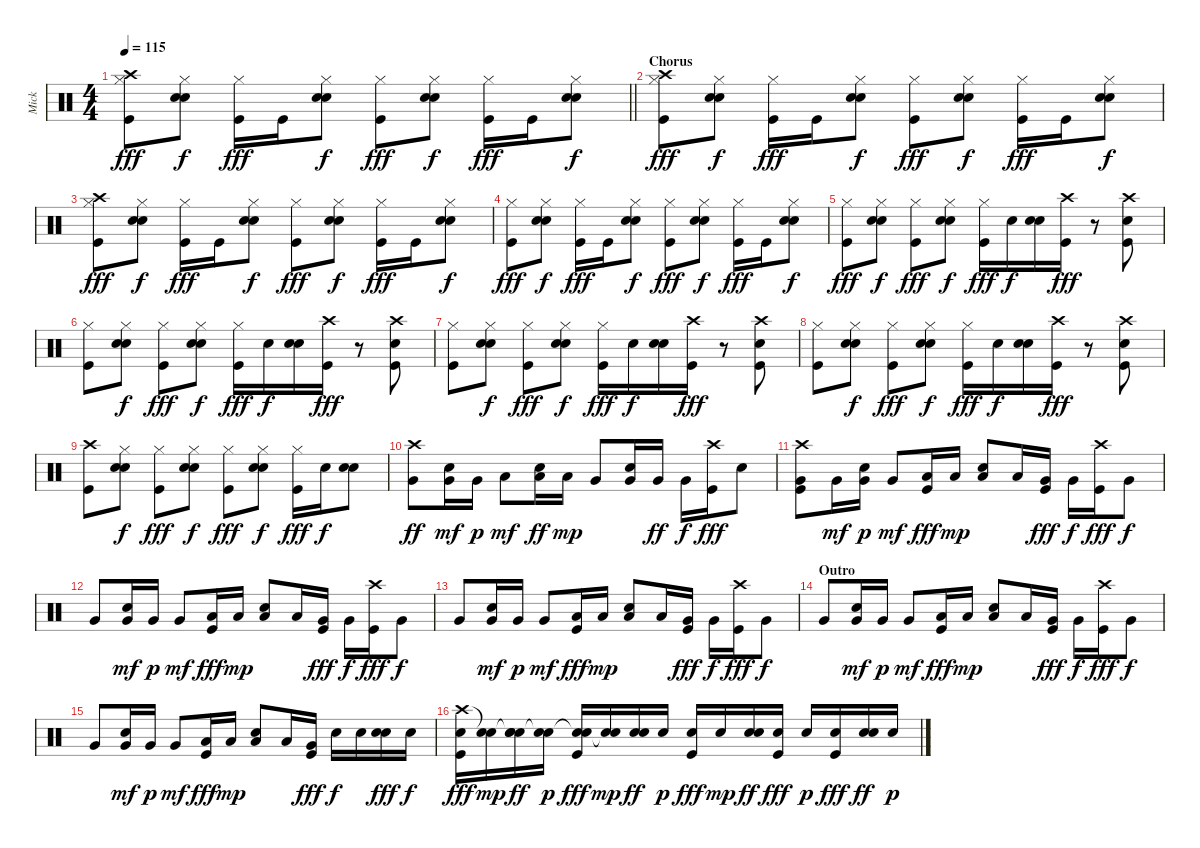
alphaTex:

\track ("Mick" "Mick") {instrument percussion}
\staff {score}
\articulation defaults
\ts (4 4)
\tempo 115
\clef neutral
\barLineRight lightlight
\ks c
("Crash high (hit)" "Hi-Hat (closed)" "Kick (hit)").8{dy fff} ("Hand Clap (hit)" "Hi-Hat (closed)" "Electric Snare (hit)").8{dy f} ("Hi-Hat (closed)" "Kick (hit)").16{dy fff} "Kick (hit)".16 ("Hand Clap (hit)" "Hi-Hat (closed)" "Electric Snare (hit)").8{dy f} ("Hi-Hat (closed)" "Kick (hit)").8{dy fff} ("Hand Clap (hit)" "Hi-Hat (closed)" "Electric Snare (hit)").8{dy f} ("Hi-Hat (closed)" "Kick (hit)").16{dy fff} "Kick (hit)".16 ("Hand Clap (hit)" "Hi-Hat (closed)" "Electric Snare (hit)").8{dy f} |
\section ("" "Chorus")
("Crash high (hit)" "Hi-Hat (closed)" "Kick (hit)").8{dy fff} ("Hand Clap (hit)" "Hi-Hat (closed)" "Electric Snare (hit)").8{dy f} ("Hi-Hat (closed)" "Kick (hit)").16{dy fff} "Kick (hit)".16 ("Hand Clap (hit)" "Hi-Hat (closed)" "Electric Snare (hit)").8{dy f} ("Hi-Hat (closed)" "Kick (hit)").8{dy fff} ("Hand Clap (hit)" "Hi-Hat (closed)" "Electric Snare (hit)").8{dy f} ("Hi-Hat (closed)" "Kick (hit)").16{dy fff} "Kick (hit)".16 ("Hand Clap (hit)" "Hi-Hat (closed)" "Electric Snare (hit)").8{dy f} |
("Crash high (hit)" "Hi-Hat (closed)" "Kick (hit)").8{dy fff} ("Hand Clap (hit)" "Hi-Hat (closed)" "Electric Snare (hit)").8{dy f} ("Hi-Hat (closed)" "Kick (hit)").16{dy fff} "Kick (hit)".16 ("Hand Clap (hit)" "Hi-Hat (closed)" "Electric Snare (hit)").8{dy f} ("Hi-Hat (closed)" "Kick (hit)").8{dy fff} ("Hand Clap (hit)" "Hi-Hat (closed)" "Electric Snare (hit)").8{dy f} ("Hi-Hat (closed)" "Kick (hit)").16{dy fff} "Kick (hit)".16 ("Hand Clap (hit)" "Hi-Hat (closed)" "Electric Snare (hit)").8{dy f} |
("Hi-Hat (closed)" "Kick (hit)").8{dy fff} ("Hand Clap (hit)" "Hi-Hat (closed)" "Electric Snare (hit)").8{dy f} ("Hi-Hat (closed)" "Kick (hit)").16{dy fff} "Kick (hit)".16 ("Hand Clap (hit)" "Hi-Hat (closed)" "Electric Snare (hit)").8{dy f} ("Hi-Hat (closed)" "Kick (hit)").8{dy fff} ("Hand Clap (hit)" "Hi-Hat (closed)" "Electric Snare (hit)").8{dy f} ("Hi-Hat (closed)" "Kick (hit)").16{dy fff} "Kick (hit)".16 ("Hand Clap (hit)" "Hi-Hat (closed)" "Electric Snare (hit)").8{dy f} |
("Hi-Hat (closed)" "Kick (hit)").8{dy fff} ("Hand Clap (hit)" "Hi-Hat (closed)" "Electric Snare (hit)").8{dy f} ("Hi-Hat (closed)" "Kick (hit)").8{dy fff} ("Hand Clap (hit)" "Hi-Hat (closed)" "Electric Snare (hit)").8{dy f} ("Hi-Hat (closed)" "Kick (hit)").16{dy fff} "Electric Snare (hit)".16{dy f} ("Hand Clap (hit)" "Electric Snare (hit)").16 ("Crash high (hit)" "Kick (hit)").16{dy fff} r.8 ("Crash high (hit)" "Hand Clap (hit)" "Kick (hit)").8 |
("Hi-Hat (closed)" "Kick (hit)").8 ("Hand Clap (hit)" "Hi-Hat (closed)" "Electric Snare (hit)").8{dy f} ("Hi-Hat (closed)" "Kick (hit)").8{dy fff} ("Hand Clap (hit)" "Hi-Hat (closed)" "Electric Snare (hit)").8{dy f} ("Hi-Hat (closed)" "Kick (hit)").16{dy fff} "Electric Snare (hit)".16{dy f} ("Hand Clap (hit)" "Electric Snare (hit)").16 ("Crash high (hit)" "Kick (hit)").16{dy fff} r.8 ("Crash high (hit)" "Hand Clap (hit)" "Kick (hit)").8 |
("Hi-Hat (closed)" "Kick (hit)").8 ("Hand Clap (hit)" "Hi-Hat (closed)" "Electric Snare (hit)").8{dy f} ("Hi-Hat (closed)" "Kick (hit)").8{dy fff} ("Hand Clap (hit)" "Hi-Hat (closed)" "Electric Snare (hit)").8{dy f} ("Hi-Hat (closed)" "Kick (hit)").16{dy fff} "Electric Snare (hit)".16{dy f} ("Hand Clap (hit)" "Electric Snare (hit)").16 ("Crash high (hit)" "Kick (hit)").16{dy fff} r.8 ("Crash high (hit)" "Hand Clap (hit)" "Kick (hit)").8 |
("Hi-Hat (closed)" "Kick (hit)").8 ("Hand Clap (hit)" "Hi-Hat (closed)" "Electric Snare (hit)").8{dy f} ("Hi-Hat (closed)" "Kick (hit)").8{dy fff} ("Hand Clap (hit)" "Hi-Hat (closed)" "Electric Snare (hit)").8{dy f} ("Hi-Hat (closed)" "Kick (hit)").16{dy fff} "Electric Snare (hit)".16{dy f} ("Hand Clap (hit)" "Electric Snare (hit)").16 ("Crash high (hit)" "Kick (hit)").16{dy fff} r.8 ("Crash high (hit)" "Hand Clap (hit)" "Kick (hit)").8 |
("Crash high (hit)" "Kick (hit)").8 ("Hand Clap (hit)" "Hi-Hat (closed)" "Electric Snare (hit)").8{dy f} ("Hi-Hat (closed)" "Kick (hit)").8{dy fff} ("Hand Clap (hit)" "Hi-Hat (closed)" "Electric Snare (hit)").8{dy f} ("Hi-Hat (closed)" "Kick (hit)").8{dy fff} ("Hand Clap (hit)" "Hi-Hat (closed)" "Electric Snare (hit)").8{dy f} ("Hi-Hat (closed)" "Kick (hit)").16{dy fff} "Electric Snare (hit)".16{dy f} ("Hand Clap (hit)" "Electric Snare (hit)").8 |
("Crash high (hit)" "Very Low Tom (hit)").8{dy ff} ("Hand Clap (hit)" "Very Low Tom (hit)").16{dy mf} "Very Low Tom (hit)".16{dy p} "Low Floor Tom (hit)".8{dy mf} ("Hand Clap (hit)" "Low Floor Tom (hit)").16{dy ff} "Low Floor Tom (hit)".16{dy mp} "Very Low Tom (hit)".8 ("Hand Clap (hit)" "Very Low Tom (hit)").16 "Very Low Tom (hit)".16{dy ff} "Very Low Tom (hit)".16{dy f} ("Crash high (hit)" "Kick (hit)").16{dy fff} "Hand Clap (hit)".8 |
("Crash high (hit)" "Very Low Tom (hit)" "Kick (hit)").8 "Very Low Tom (hit)".16{dy mf} ("Hand Clap (hit)" "Very Low Tom (hit)").16{dy p} "Very Low Tom (hit)".8{dy mf} ("Low Floor Tom (hit)" "Kick (hit)").16{dy fff} "Low Floor Tom (hit)".16{dy mp} ("Hand Clap (hit)" "Low Floor Tom (hit)").8 "Low Floor Tom (hit)".16 ("Very Low Tom (hit)" "Kick (hit)").16{dy fff} "Very Low Tom (hit)".16{dy f} ("Crash high (hit)" "Kick (hit)").16{dy fff} "Very Low Tom (hit)".8{dy f} |
"Very Low Tom (hit)".8 ("Hand Clap (hit)" "Very Low Tom (hit)").16{dy mf} "Very Low Tom (hit)".16{dy p} "Very Low Tom (hit)".8{dy mf} ("Low Floor Tom (hit)" "Kick (hit)").16{dy fff} "Low Floor Tom (hit)".16{dy mp} ("Hand Clap (hit)" "Low Floor Tom (hit)").8 "Low Floor Tom (hit)".16 ("Very Low Tom (hit)" "Kick (hit)").16{dy fff} "Very Low Tom (hit)".16{dy f} ("Crash high (hit)" "Kick (hit)").16{dy fff} "Very Low Tom (hit)".8{dy f} |
"Very Low Tom (hit)".8 ("Hand Clap (hit)" "Very Low Tom (hit)").16{dy mf} "Very Low Tom (hit)".16{dy p} "Very Low Tom (hit)".8{dy mf} ("Low Floor Tom (hit)" "Kick (hit)").16{dy fff} "Low Floor Tom (hit)".16{dy mp} ("Hand Clap (hit)" "Low Floor Tom (hit)").8 "Low Floor Tom (hit)".16 ("Very Low Tom (hit)" "Kick (hit)").16{dy fff} "Very Low Tom (hit)".16{dy f} ("Crash high (hit)" "Kick (hit)").16{dy fff} "Very Low Tom (hit)".8{dy f} |
\section ("" "Outro")
"Very Low Tom (hit)".8 ("Hand Clap (hit)" "Very Low Tom (hit)").16{dy mf} "Very Low Tom (hit)".16{dy p} "Very Low Tom (hit)".8{dy mf} ("Low Floor Tom (hit)" "Kick (hit)").16{dy fff} "Low Floor Tom (hit)".16{dy mp} ("Hand Clap (hit)" "Low Floor Tom (hit)").8 "Low Floor Tom (hit)".16 ("Very Low Tom (hit)" "Kick (hit)").16{dy fff} "Very Low Tom (hit)".16{dy f} ("Crash high (hit)" "Kick (hit)").16{dy fff} "Very Low Tom (hit)".8{dy f} |
"Very Low Tom (hit)".8 ("Hand Clap (hit)" "Very Low Tom (hit)").16{dy mf} "Very Low Tom (hit)".16{dy p} "Very Low Tom (hit)".8{dy mf} ("Low Floor Tom (hit)" "Kick (hit)").16{dy fff} "Low Floor Tom (hit)".16{dy mp} ("Hand Clap (hit)" "Low Floor Tom (hit)").8 "Low Floor Tom (hit)".16 ("Very Low Tom (hit)" "Kick (hit)").16{dy fff} "Electric Snare (hit)".16{dy f} "Electric Snare (hit)".16 ("Hand Clap (hit)" "Electric Snare (hit)").16{dy fff} "Electric Snare (hit)".16{dy f} |
("Crash high (hit)" "Electric Snare (hit)" "Kick (hit)").16{dy fff} ("Snare (hit)"{t} "Electric Snare (hit)").16{dy mp} ("Snare (hit)"{t} "Hand Clap (hit)" "Electric Snare (hit)").16{dy ff} ("Snare (hit)"{t} "Electric Snare (hit)").16{dy p} ("Snare (hit)"{t} "Electric Snare (hit)" "Kick (hit)").16{dy fff} ("Snare (hit)"{t} "Electric Snare (hit)").16{dy mp} ("Hand Clap (hit)" "Electric Snare (hit)").16{dy ff} "Electric Snare (hit)".16{dy p} ("Electric Snare (hit)" "Kick (hit)").16{dy fff} "Electric Snare (hit)".16{dy mp} ("Hand Clap (hit)" "Electric Snare (hit)").16{dy ff} ("Electric Snare (hit)" "Kick (hit)").16{dy fff} "Electric Snare (hit)".16{dy p} ("Electric Snare (hit)" "Kick (hit)").16{dy fff} ("Hand Clap (hit)" "Electric Snare (hit)").16{dy ff} "Electric Snare (hit)".16{dy p}
